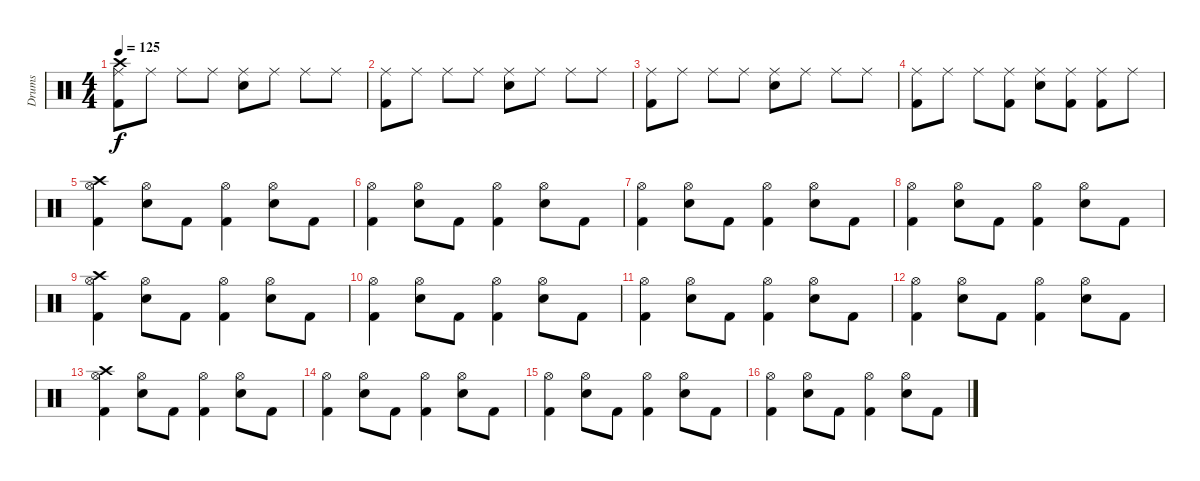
\track ("Drums" "Drums") {instrument percussion}
\staff {score}
\articulation defaults
\ts (4 4)
\tempo 125
\clef neutral
\ks c
("Crash high (hit)" "Ride (middle)" "Kick (hit) 2").8{dy f} "Ride (middle)".8 "Ride (middle)".8 "Ride (middle)".8 ("Ride (middle)" "Snare (hit) 2").8 "Ride (middle)".8 "Ride (middle)".8 "Ride (middle)".8 |
("Ride (middle)" "Kick (hit) 2").8 "Ride (middle)".8 "Ride (middle)".8 "Ride (middle)".8 ("Ride (middle)" "Snare (hit) 2").8 "Ride (middle)".8 "Ride (middle)".8 "Ride (middle)".8 |
("Ride (middle)" "Kick (hit) 2").8 "Ride (middle)".8 "Ride (middle)".8 "Ride (middle)".8 ("Ride (middle)" "Snare (hit) 2").8 "Ride (middle)".8 "Ride (middle)".8 "Ride (middle)".8 |
("Ride (middle)" "Kick (hit) 2").8 "Ride (middle)".8 "Ride (middle)".8 ("Ride (middle)" "Kick (hit) 2").8 ("Ride (middle)" "Snare (hit) 2").8 ("Ride (middle)" "Kick (hit) 2").8 ("Ride (middle)" "Kick (hit) 2").8 "Ride (middle)".8 |
("Crash high (hit)" "Hi-Hat (open)" "Kick (hit) 2").4 ("Hi-Hat (open)" "Snare (hit) 2").8 "Kick (hit) 2".8 ("Hi-Hat (open)" "Kick (hit) 2").4 ("Hi-Hat (open)" "Snare (hit) 2").8 "Kick (hit) 2".8 |
("Hi-Hat (open)" "Kick (hit) 2").4 ("Hi-Hat (open)" "Snare (hit) 2").8 "Kick (hit) 2".8 ("Hi-Hat (open)" "Kick (hit) 2").4 ("Hi-Hat (open)" "Snare (hit) 2").8 "Kick (hit) 2".8 |
("Hi-Hat (open)" "Kick (hit) 2").4 ("Hi-Hat (open)" "Snare (hit) 2").8 "Kick (hit) 2".8 ("Hi-Hat (open)" "Kick (hit) 2").4 ("Hi-Hat (open)" "Snare (hit) 2").8 "Kick (hit) 2".8 |
("Hi-Hat (open)" "Kick (hit) 2").4 ("Hi-Hat (open)" "Snare (hit) 2").8 "Kick (hit) 2".8 ("Hi-Hat (open)" "Kick (hit) 2").4 ("Hi-Hat (open)" "Snare (hit) 2").8 "Kick (hit) 2".8 |
("Crash high (hit)" "Hi-Hat (open)" "Kick (hit) 2").4 ("Hi-Hat (open)" "Snare (hit) 2").8 "Kick (hit) 2".8 ("Hi-Hat (open)" "Kick (hit) 2").4 ("Hi-Hat (open)" "Snare (hit) 2").8 "Kick (hit) 2".8 |
("Hi-Hat (open)" "Kick (hit) 2").4 ("Hi-Hat (open)" "Snare (hit) 2").8 "Kick (hit) 2".8 ("Hi-Hat (open)" "Kick (hit) 2").4 ("Hi-Hat (open)" "Snare (hit) 2").8 "Kick (hit) 2".8 |
("Hi-Hat (open)" "Kick (hit) 2").4 ("Hi-Hat (open)" "Snare (hit) 2").8 "Kick (hit) 2".8 ("Hi-Hat (open)" "Kick (hit) 2").4 ("Hi-Hat (open)" "Snare (hit) 2").8 "Kick (hit) 2".8 |
("Hi-Hat (open)" "Kick (hit) 2").4 ("Hi-Hat (open)" "Snare (hit) 2").8 "Kick (hit) 2".8 ("Hi-Hat (open)" "Kick (hit) 2").4 ("Hi-Hat (open)" "Snare (hit) 2").8 "Kick (hit) 2".8 |
("Crash high (hit)" "Hi-Hat (open)" "Kick (hit) 2").4 ("Hi-Hat (open)" "Snare (hit) 2").8 "Kick (hit) 2".8 ("Hi-Hat (open)" "Kick (hit) 2").4 ("Hi-Hat (open)" "Snare (hit) 2").8 "Kick (hit) 2".8 |
("Hi-Hat (open)" "Kick (hit) 2").4 ("Hi-Hat (open)" "Snare (hit) 2").8 "Kick (hit) 2".8 ("Hi-Hat (open)" "Kick (hit) 2").4 ("Hi-Hat (open)" "Snare (hit) 2").8 "Kick (hit) 2".8 |
("Hi-Hat (open)" "Kick (hit) 2").4 ("Hi-Hat (open)" "Snare (hit) 2").8 "Kick (hit) 2".8 ("Hi-Hat (open)" "Kick (hit) 2").4 ("Hi-Hat (open)" "Snare (hit) 2").8 "Kick (hit) 2".8 |
("Hi-Hat (open)" "Kick (hit) 2").4 ("Hi-Hat (open)" "Snare (hit) 2").8 "Kick (hit) 2".8 ("Hi-Hat (open)" "Kick (hit) 2").4 ("Hi-Hat (open)" "Snare (hit) 2").8 "Kick (hit) 2".8
